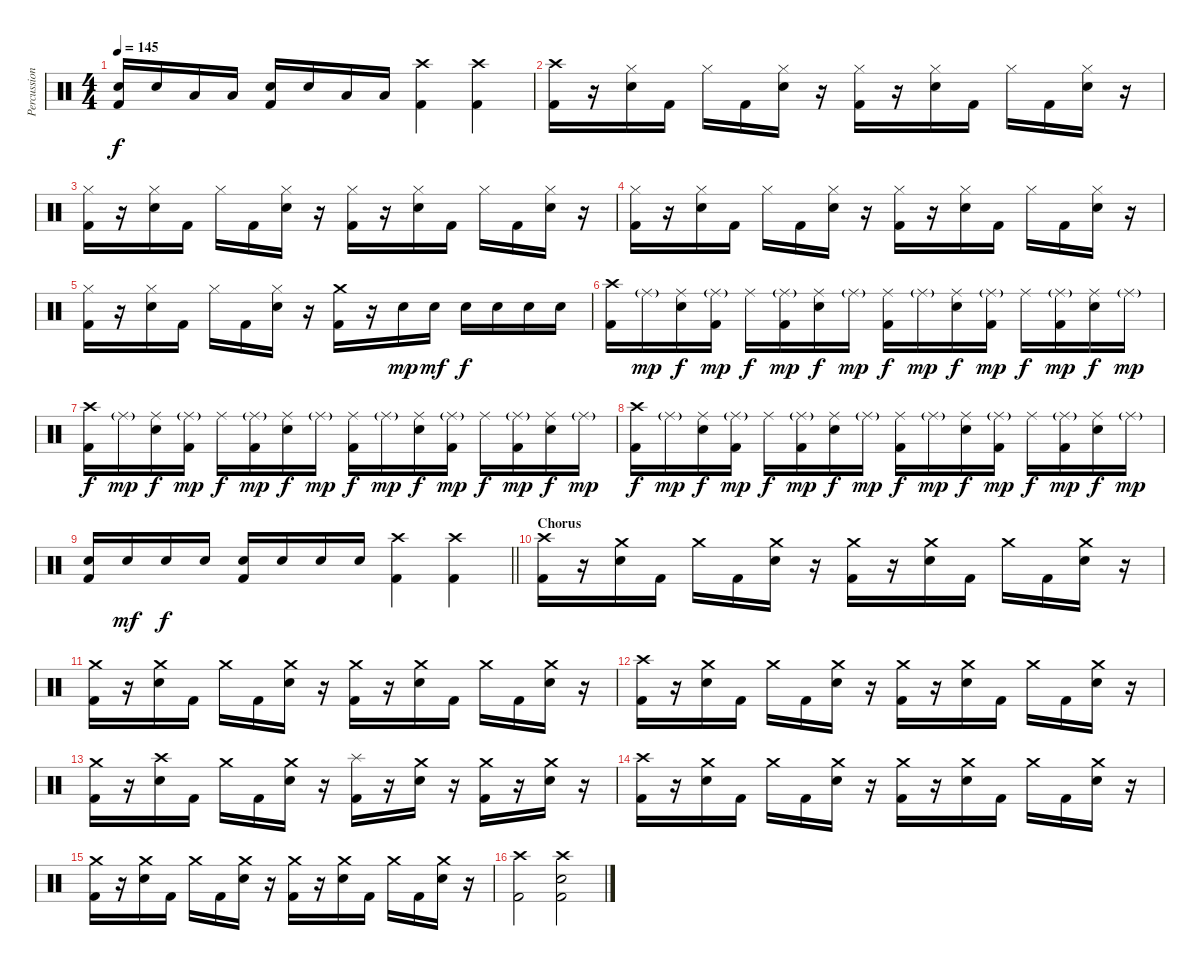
\track ("Percussion" "Percussion") {instrument percussion}
\staff {score}
\articulation defaults
\ts (4 4)
\tempo 145
\clef neutral
\ks c
("Electric Snare (hit)" "Kick (hit) 2").16{dy f} "Electric Snare (hit)".16 "Low Floor Tom (hit)".16 "Low Floor Tom (hit)".16 ("Electric Snare (hit)" "Kick (hit) 2").16 "Electric Snare (hit)".16 "Low Floor Tom (hit)".16 "Low Floor Tom (hit)".16 ("Crash high (hit)" "Kick (hit) 2").4 ("Crash high (hit)" "Kick (hit) 2").4 |
("Crash high (hit)" "Kick (hit) 2").16 r.16 ("Hi-Hat (closed)" "Electric Snare (hit)").16 "Kick (hit) 2".16 "Hi-Hat (closed)".16 "Kick (hit) 2".16 ("Hi-Hat (closed)" "Electric Snare (hit)").16 r.16 ("Hi-Hat (closed)" "Kick (hit) 2").16 r.16 ("Hi-Hat (closed)" "Electric Snare (hit)").16 "Kick (hit) 2".16 "Hi-Hat (closed)".16 "Kick (hit) 2".16 ("Hi-Hat (closed)" "Electric Snare (hit)").16 r.16 |
("Hi-Hat (closed)" "Kick (hit) 2").16 r.16 ("Hi-Hat (closed)" "Electric Snare (hit)").16 "Kick (hit) 2".16 "Hi-Hat (closed)".16 "Kick (hit) 2".16 ("Hi-Hat (closed)" "Electric Snare (hit)").16 r.16 ("Hi-Hat (closed)" "Kick (hit) 2").16 r.16 ("Hi-Hat (closed)" "Electric Snare (hit)").16 "Kick (hit) 2".16 "Hi-Hat (closed)".16 "Kick (hit) 2".16 ("Hi-Hat (closed)" "Electric Snare (hit)").16 r.16 |
("Hi-Hat (closed)" "Kick (hit) 2").16 r.16 ("Hi-Hat (closed)" "Electric Snare (hit)").16 "Kick (hit) 2".16 "Hi-Hat (closed)".16 "Kick (hit) 2".16 ("Hi-Hat (closed)" "Electric Snare (hit)").16 r.16 ("Hi-Hat (closed)" "Kick (hit) 2").16 r.16 ("Hi-Hat (closed)" "Electric Snare (hit)").16 "Kick (hit) 2".16 "Hi-Hat (closed)".16 "Kick (hit) 2".16 ("Hi-Hat (closed)" "Electric Snare (hit)").16 r.16 |
("Hi-Hat (closed)" "Kick (hit) 2").16 r.16 ("Hi-Hat (closed)" "Electric Snare (hit)").16 "Kick (hit) 2".16 "Hi-Hat (closed)".16 "Kick (hit) 2".16 ("Hi-Hat (closed)" "Electric Snare (hit)").16 r.16 ("Crash medium (hit)" "Kick (hit) 2").16 r.16 "Electric Snare (hit)".16{dy mp} "Electric Snare (hit)".16{dy mf} "Electric Snare (hit)".16{dy f} "Electric Snare (hit)".16 "Electric Snare (hit)".16 "Electric Snare (hit)".16 |
("Crash high (hit)" "Kick (hit) 2").16 "Ride (middle)"{g}.16{dy mp} ("Ride (middle)" "Electric Snare (hit)").16{dy f} ("Ride (middle)"{g} "Kick (hit) 2").16{dy mp} "Ride (middle)".16{dy f} ("Ride (middle)"{g} "Kick (hit) 2").16{dy mp} ("Ride (middle)" "Electric Snare (hit)").16{dy f} "Ride (middle)"{g}.16{dy mp} ("Ride (middle)" "Kick (hit) 2").16{dy f} "Ride (middle)"{g}.16{dy mp} ("Ride (middle)" "Electric Snare (hit)").16{dy f} ("Ride (middle)"{g} "Kick (hit) 2").16{dy mp} "Ride (middle)".16{dy f} ("Ride (middle)"{g} "Kick (hit) 2").16{dy mp} ("Ride (middle)" "Electric Snare (hit)").16{dy f} "Ride (middle)"{g}.16{dy mp} |
("Crash high (hit)" "Kick (hit) 2").16{dy f} "Ride (middle)"{g}.16{dy mp} ("Ride (middle)" "Electric Snare (hit)").16{dy f} ("Ride (middle)"{g} "Kick (hit) 2").16{dy mp} "Ride (middle)".16{dy f} ("Ride (middle)"{g} "Kick (hit) 2").16{dy mp} ("Ride (middle)" "Electric Snare (hit)").16{dy f} "Ride (middle)"{g}.16{dy mp} ("Ride (middle)" "Kick (hit) 2").16{dy f} "Ride (middle)"{g}.16{dy mp} ("Ride (middle)" "Electric Snare (hit)").16{dy f} ("Ride (middle)"{g} "Kick (hit) 2").16{dy mp} "Ride (middle)".16{dy f} ("Ride (middle)"{g} "Kick (hit) 2").16{dy mp} ("Ride (middle)" "Electric Snare (hit)").16{dy f} "Ride (middle)"{g}.16{dy mp} |
("Crash high (hit)" "Kick (hit) 2").16{dy f} "Ride (middle)"{g}.16{dy mp} ("Ride (middle)" "Electric Snare (hit)").16{dy f} ("Ride (middle)"{g} "Kick (hit) 2").16{dy mp} "Ride (middle)".16{dy f} ("Ride (middle)"{g} "Kick (hit) 2").16{dy mp} ("Ride (middle)" "Electric Snare (hit)").16{dy f} "Ride (middle)"{g}.16{dy mp} ("Ride (middle)" "Kick (hit) 2").16{dy f} "Ride (middle)"{g}.16{dy mp} ("Ride (middle)" "Electric Snare (hit)").16{dy f} ("Ride (middle)"{g} "Kick (hit) 2").16{dy mp} "Ride (middle)".16{dy f} ("Ride (middle)"{g} "Kick (hit) 2").16{dy mp} ("Ride (middle)" "Electric Snare (hit)").16{dy f} "Ride (middle)"{g}.16{dy mp} |
\barLineRight lightlight
("Electric Snare (hit)" "Kick (hit) 2").16 "Electric Snare (hit)".16{dy mf} "Electric Snare (hit)".16{dy f} "Electric Snare (hit)".16 ("Electric Snare (hit)" "Kick (hit) 2").16 "Electric Snare (hit)".16 "Electric Snare (hit)".16 "Electric Snare (hit)".16 ("Crash high (hit)" "Kick (hit) 2").4 ("Crash high (hit)" "Kick (hit) 2").4 |
\section ("" "Chorus")
("Crash high (hit)" "Kick (hit) 2").16 r.16 ("Crash medium (hit)" "Electric Snare (hit)").16 "Kick (hit) 2".16 "Crash medium (hit)".16 "Kick (hit) 2".16 ("Crash medium (hit)" "Electric Snare (hit)").16 r.16 ("Crash medium (hit)" "Kick (hit) 2").16 r.16 ("Crash medium (hit)" "Electric Snare (hit)").16 "Kick (hit) 2".16 "Crash medium (hit)".16 "Kick (hit) 2".16 ("Crash medium (hit)" "Electric Snare (hit)").16 r.16 |
("Crash medium (hit)" "Kick (hit) 2").16 r.16 ("Crash medium (hit)" "Electric Snare (hit)").16 "Kick (hit) 2".16 "Crash medium (hit)".16 "Kick (hit) 2".16 ("Crash medium (hit)" "Electric Snare (hit)").16 r.16 ("Crash medium (hit)" "Kick (hit) 2").16 r.16 ("Crash medium (hit)" "Electric Snare (hit)").16 "Kick (hit) 2".16 "Crash medium (hit)".16 "Kick (hit) 2".16 ("Crash medium (hit)" "Electric Snare (hit)").16 r.16 |
("Crash high (hit)" "Kick (hit) 2").16 r.16 ("Crash medium (hit)" "Electric Snare (hit)").16 "Kick (hit) 2".16 "Crash medium (hit)".16 "Kick (hit) 2".16 ("Crash medium (hit)" "Electric Snare (hit)").16 r.16 ("Crash medium (hit)" "Kick (hit) 2").16 r.16 ("Crash medium (hit)" "Electric Snare (hit)").16 "Kick (hit) 2".16 "Crash medium (hit)".16 "Kick (hit) 2".16 ("Crash medium (hit)" "Electric Snare (hit)").16 r.16 |
("Crash medium (hit)" "Kick (hit) 2").16 r.16 ("Crash high (hit)" "Electric Snare (hit)").16 "Kick (hit) 2".16 "Crash medium (hit)".16 "Kick (hit) 2".16 ("Crash medium (hit)" "Electric Snare (hit)").16 r.16 ("Splash (hit)" "Kick (hit) 2").16 r.16 ("Crash medium (hit)" "Electric Snare (hit)").16 r.16 ("Crash medium (hit)" "Kick (hit) 2").16 r.16 ("Crash medium (hit)" "Electric Snare (hit)").16 r.16 |
("Crash high (hit)" "Kick (hit) 2").16 r.16 ("Crash medium (hit)" "Electric Snare (hit)").16 "Kick (hit) 2".16 "Crash medium (hit)".16 "Kick (hit) 2".16 ("Crash medium (hit)" "Electric Snare (hit)").16 r.16 ("Crash medium (hit)" "Kick (hit) 2").16 r.16 ("Crash medium (hit)" "Electric Snare (hit)").16 "Kick (hit) 2".16 "Crash medium (hit)".16 "Kick (hit) 2".16 ("Crash medium (hit)" "Electric Snare (hit)").16 r.16 |
("Crash medium (hit)" "Kick (hit) 2").16 r.16 ("Crash medium (hit)" "Electric Snare (hit)").16 "Kick (hit) 2".16 "Crash medium (hit)".16 "Kick (hit) 2".16 ("Crash medium (hit)" "Electric Snare (hit)").16 r.16 ("Crash medium (hit)" "Kick (hit) 2").16 r.16 ("Crash medium (hit)" "Electric Snare (hit)").16 "Kick (hit) 2".16 "Crash medium (hit)".16 "Kick (hit) 2".16 ("Crash medium (hit)" "Electric Snare (hit)").16 r.16 |
("Crash high (hit)" "Kick (hit) 2").2 ("Crash high (hit)" "Electric Snare (hit)" "Kick (hit) 2").2
